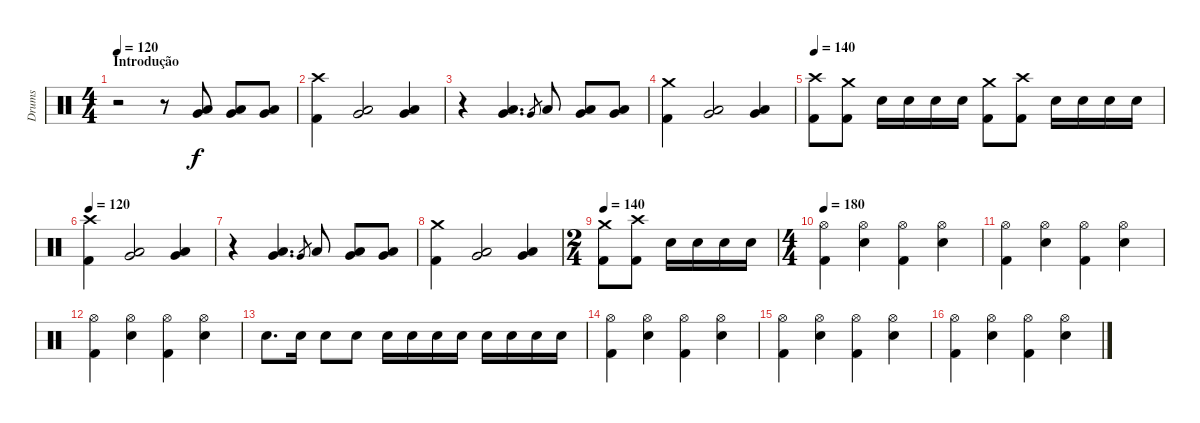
\track ("Drums" "Drums") {instrument percussion}
\staff {score}
\articulation defaults
\ts (4 4)
\section ("" "Introdução")
\tempo 120
\clef neutral
\ks c
r.2{dy f} r.8 ("Low Tom (hit)" "Very Low Tom (hit)").8 ("Low Tom (hit)" "Very Low Tom (hit)").8 ("Low Tom (hit)" "Very Low Tom (hit)").8 |
("Crash high (hit)" "Kick (hit) 2").4 ("Low Tom (hit)" "Very Low Tom (hit)").2 ("Low Tom (hit)" "Very Low Tom (hit)").4 |
r.4 ("Low Tom (hit)" "Very Low Tom (hit)").4{d} "Very Low Tom (hit)".8{gr} "Low Tom (hit)".8 ("Low Tom (hit)" "Very Low Tom (hit)").8 ("Low Tom (hit)" "Very Low Tom (hit)").8 |
("Crash medium (hit)" "Kick (hit) 2").4 ("Low Tom (hit)" "Very Low Tom (hit)").2 ("Low Tom (hit)" "Very Low Tom (hit)").4 |
\tempo 140
("Crash high (hit)" "Kick (hit) 2").8 ("Crash medium (hit)" "Kick (hit) 2").8 "Electric Snare (hit)".16 "Electric Snare (hit)".16 "Electric Snare (hit)".16 "Electric Snare (hit)".16 ("Crash medium (hit)" "Kick (hit) 2").8 ("Crash high (hit)" "Kick (hit) 2").8 "Electric Snare (hit)".16 "Electric Snare (hit)".16 "Electric Snare (hit)".16 "Electric Snare (hit)".16 |
\tempo 120
("Crash high (hit)" "Kick (hit) 2").4 ("Low Tom (hit)" "Very Low Tom (hit)").2 ("Low Tom (hit)" "Very Low Tom (hit)").4 |
r.4 ("Low Tom (hit)" "Very Low Tom (hit)").4{d} "Very Low Tom (hit)".8{gr} "Low Tom (hit)".8 ("Low Tom (hit)" "Very Low Tom (hit)").8 ("Low Tom (hit)" "Very Low Tom (hit)").8 |
("Crash medium (hit)" "Kick (hit) 2").4 ("Low Tom (hit)" "Very Low Tom (hit)").2 ("Low Tom (hit)" "Very Low Tom (hit)").4 |
\ts (2 4)
\tempo 140
("Crash medium (hit)" "Kick (hit) 2").8 ("Crash high (hit)" "Kick (hit) 2").8 "Electric Snare (hit)".16 "Electric Snare (hit)".16 "Electric Snare (hit)".16 "Electric Snare (hit)".16 |
\ts (4 4)
\tempo 180
("Hi-Hat (open)" "Kick (hit) 2").4 ("Hi-Hat (open)" "Electric Snare (hit)").4 ("Hi-Hat (open)" "Kick (hit) 2").4 ("Hi-Hat (open)" "Electric Snare (hit)").4 |
("Hi-Hat (open)" "Kick (hit) 2").4 ("Hi-Hat (open)" "Electric Snare (hit)").4 ("Hi-Hat (open)" "Kick (hit) 2").4 ("Hi-Hat (open)" "Electric Snare (hit)").4 |
("Hi-Hat (open)" "Kick (hit) 2").4 ("Hi-Hat (open)" "Electric Snare (hit)").4 ("Hi-Hat (open)" "Kick (hit) 2").4 ("Hi-Hat (open)" "Electric Snare (hit)").4 |
"Electric Snare (hit)".8{d} "Electric Snare (hit)".16 "Electric Snare (hit)".8 "Electric Snare (hit)".8 "Electric Snare (hit)".16 "Electric Snare (hit)".16 "Electric Snare (hit)".16 "Electric Snare (hit)".16 "Electric Snare (hit)".16 "Electric Snare (hit)".16 "Electric Snare (hit)".16 "Electric Snare (hit)".16 |
("Hi-Hat (open)" "Kick (hit) 2").4 ("Hi-Hat (open)" "Electric Snare (hit)").4 ("Hi-Hat (open)" "Kick (hit) 2").4 ("Hi-Hat (open)" "Electric Snare (hit)").4 |
("Hi-Hat (open)" "Kick (hit) 2").4 ("Hi-Hat (open)" "Electric Snare (hit)").4 ("Hi-Hat (open)" "Kick (hit) 2").4 ("Hi-Hat (open)" "Electric Snare (hit)").4 |
("Hi-Hat (open)" "Kick (hit) 2").4 ("Hi-Hat (open)" "Electric Snare (hit)").4 ("Hi-Hat (open)" "Kick (hit) 2").4 ("Hi-Hat (open)" "Electric Snare (hit)").4
